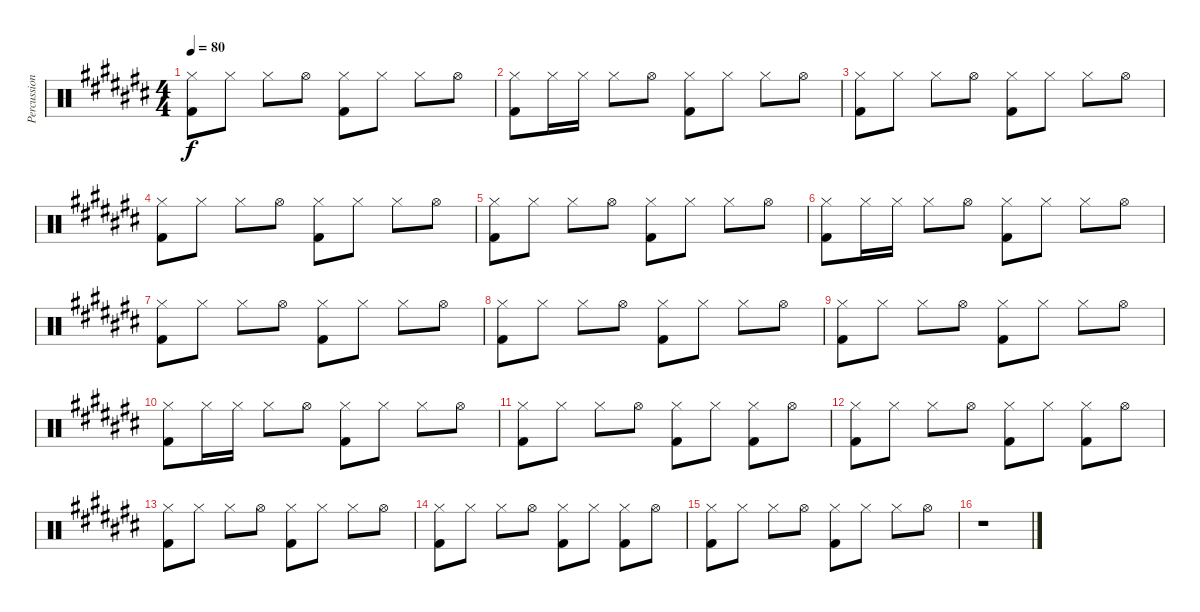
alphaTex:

\track ("Percussion" "Percussion") {instrument percussion}
\staff {score}
\articulation defaults
\ts (4 4)
\tempo 80
\clef neutral
\ks c#
("Kick (hit) 2" "Hi-Hat (closed)").8{dy f} "Hi-Hat (closed)".8 "Hi-Hat (closed)".8 "Hi-Hat (open)".8 ("Kick (hit) 2" "Hi-Hat (closed)").8 "Hi-Hat (closed)".8 "Hi-Hat (closed)".8 "Hi-Hat (open)".8 |
("Kick (hit) 2" "Hi-Hat (closed)").8 "Hi-Hat (closed)".16 "Hi-Hat (closed)".16 "Hi-Hat (closed)".8 "Hi-Hat (open)".8 ("Kick (hit) 2" "Hi-Hat (closed)").8 "Hi-Hat (closed)".8 "Hi-Hat (closed)".8 "Hi-Hat (open)".8 |
("Kick (hit) 2" "Hi-Hat (closed)").8 "Hi-Hat (closed)".8 "Hi-Hat (closed)".8 "Hi-Hat (open)".8 ("Kick (hit) 2" "Hi-Hat (closed)").8 "Hi-Hat (closed)".8 "Hi-Hat (closed)".8 "Hi-Hat (open)".8 |
("Kick (hit) 2" "Hi-Hat (closed)").8 "Hi-Hat (closed)".8 "Hi-Hat (closed)".8 "Hi-Hat (open)".8 ("Kick (hit) 2" "Hi-Hat (closed)").8 "Hi-Hat (closed)".8 "Hi-Hat (closed)".8 "Hi-Hat (open)".8 |
("Kick (hit) 2" "Hi-Hat (closed)").8 "Hi-Hat (closed)".8 "Hi-Hat (closed)".8 "Hi-Hat (open)".8 ("Kick (hit) 2" "Hi-Hat (closed)").8 "Hi-Hat (closed)".8 "Hi-Hat (closed)".8 "Hi-Hat (open)".8 |
("Kick (hit) 2" "Hi-Hat (closed)").8 "Hi-Hat (closed)".16 "Hi-Hat (closed)".16 "Hi-Hat (closed)".8 "Hi-Hat (open)".8 ("Kick (hit) 2" "Hi-Hat (closed)").8 "Hi-Hat (closed)".8 "Hi-Hat (closed)".8 "Hi-Hat (open)".8 |
("Kick (hit) 2" "Hi-Hat (closed)").8 "Hi-Hat (closed)".8 "Hi-Hat (closed)".8 "Hi-Hat (open)".8 ("Kick (hit) 2" "Hi-Hat (closed)").8 "Hi-Hat (closed)".8 "Hi-Hat (closed)".8 "Hi-Hat (open)".8 |
("Kick (hit) 2" "Hi-Hat (closed)").8 "Hi-Hat (closed)".8 "Hi-Hat (closed)".8 "Hi-Hat (open)".8 ("Kick (hit) 2" "Hi-Hat (closed)").8 "Hi-Hat (closed)".8 "Hi-Hat (closed)".8 "Hi-Hat (open)".8 |
("Kick (hit) 2" "Hi-Hat (closed)").8 "Hi-Hat (closed)".8 "Hi-Hat (closed)".8 "Hi-Hat (open)".8 ("Kick (hit) 2" "Hi-Hat (closed)").8 "Hi-Hat (closed)".8 "Hi-Hat (closed)".8 "Hi-Hat (open)".8 |
("Kick (hit) 2" "Hi-Hat (closed)").8 "Hi-Hat (closed)".16 "Hi-Hat (closed)".16 "Hi-Hat (closed)".8 "Hi-Hat (open)".8 ("Kick (hit) 2" "Hi-Hat (closed)").8 "Hi-Hat (closed)".8 "Hi-Hat (closed)".8 "Hi-Hat (open)".8 |
("Kick (hit) 2" "Hi-Hat (closed)").8 "Hi-Hat (closed)".8 "Hi-Hat (closed)".8 "Hi-Hat (open)".8 ("Kick (hit) 2" "Hi-Hat (closed)").8 "Hi-Hat (closed)".8 ("Kick (hit) 2" "Hi-Hat (closed)").8 "Hi-Hat (open)".8 |
("Kick (hit) 2" "Hi-Hat (closed)").8 "Hi-Hat (closed)".8 "Hi-Hat (closed)".8 "Hi-Hat (open)".8 ("Kick (hit) 2" "Hi-Hat (closed)").8 "Hi-Hat (closed)".8 ("Kick (hit) 2" "Hi-Hat (closed)").8 "Hi-Hat (open)".8 |
("Kick (hit) 2" "Hi-Hat (closed)").8 "Hi-Hat (closed)".8 "Hi-Hat (closed)".8 "Hi-Hat (open)".8 ("Kick (hit) 2" "Hi-Hat (closed)").8 "Hi-Hat (closed)".8 "Hi-Hat (closed)".8 "Hi-Hat (open)".8 |
("Kick (hit) 2" "Hi-Hat (closed)").8 "Hi-Hat (closed)".8 "Hi-Hat (closed)".8 "Hi-Hat (open)".8 ("Kick (hit) 2" "Hi-Hat (closed)").8 "Hi-Hat (closed)".8 ("Kick (hit) 2" "Hi-Hat (closed)").8 "Hi-Hat (open)".8 |
("Kick (hit) 2" "Hi-Hat (closed)").8 "Hi-Hat (closed)".8 "Hi-Hat (closed)".8 "Hi-Hat (open)".8 ("Kick (hit) 2" "Hi-Hat (closed)").8 "Hi-Hat (closed)".8 "Hi-Hat (closed)".8 "Hi-Hat (open)".8 |
r.1
